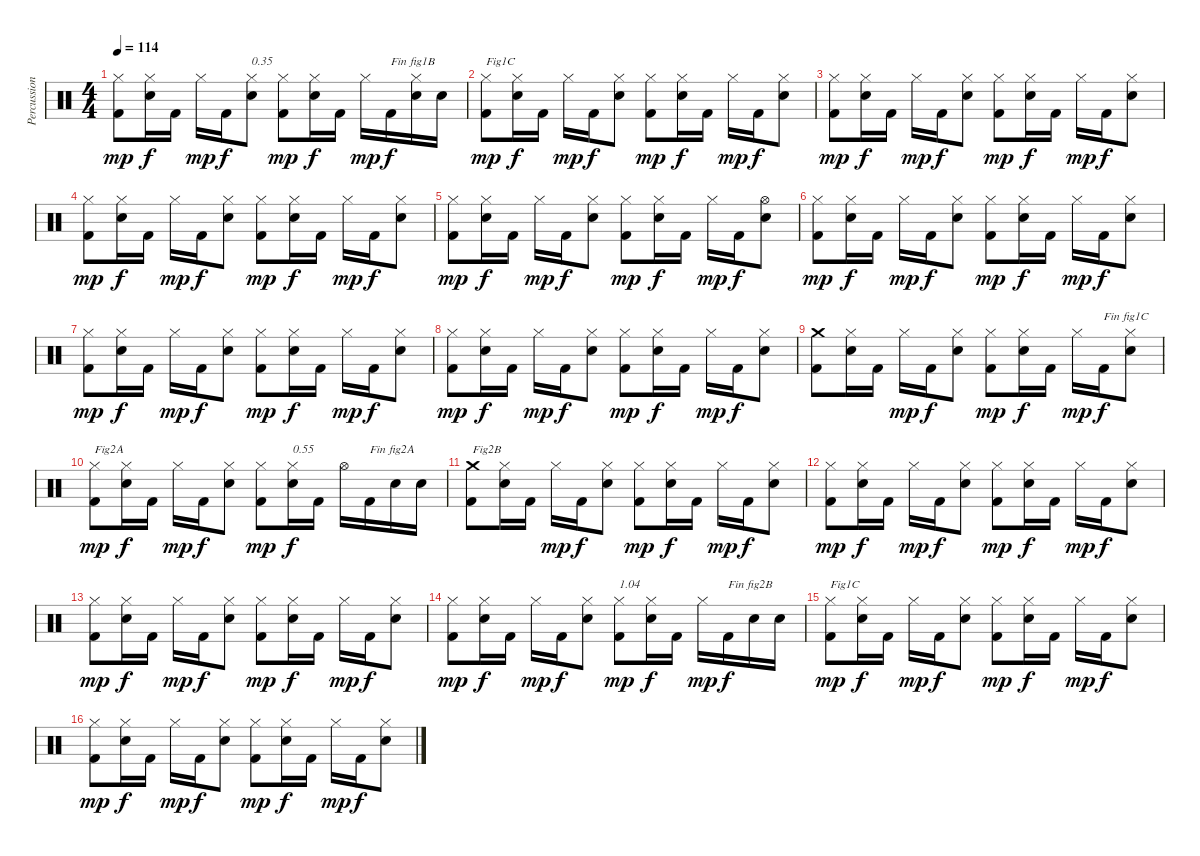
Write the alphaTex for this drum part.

\track ("Percussions" "Percussion") {instrument percussion}
\staff {score}
\articulation defaults
\ts (4 4)
\tempo 114
\clef neutral
\ks c
("Kick (hit) 2" "Hi-Hat (closed)").8{dy mp} ("Electric Snare (hit)" "Hi-Hat (closed)").16{dy f} "Kick (hit) 2".16 "Hi-Hat (closed)".16{dy mp} "Kick (hit) 2".16{dy f} ("Electric Snare (hit)" "Hi-Hat (closed)").8{txt "0.35"} ("Kick (hit) 2" "Hi-Hat (closed)").8{dy mp} ("Electric Snare (hit)" "Hi-Hat (closed)").16{dy f} "Kick (hit) 2".16 "Hi-Hat (closed)".16{dy mp} "Kick (hit) 2".16{txt "Fin fig1B" dy f} ("Electric Snare (hit)" "Hi-Hat (closed)").16 "Electric Snare (hit)".16 |
("Kick (hit) 2" "Hi-Hat (closed)").8{txt "Fig1C" dy mp} ("Electric Snare (hit)" "Hi-Hat (closed)").16{dy f} "Kick (hit) 2".16 "Hi-Hat (closed)".16{dy mp} "Kick (hit) 2".16{dy f} ("Electric Snare (hit)" "Hi-Hat (closed)").8 ("Kick (hit) 2" "Hi-Hat (closed)").8{dy mp} ("Electric Snare (hit)" "Hi-Hat (closed)").16{dy f} "Kick (hit) 2".16 "Hi-Hat (closed)".16{dy mp} "Kick (hit) 2".16{dy f} ("Electric Snare (hit)" "Hi-Hat (closed)").8 |
("Kick (hit) 2" "Hi-Hat (closed)").8{dy mp} ("Electric Snare (hit)" "Hi-Hat (closed)").16{dy f} "Kick (hit) 2".16 "Hi-Hat (closed)".16{dy mp} "Kick (hit) 2".16{dy f} ("Electric Snare (hit)" "Hi-Hat (closed)").8 ("Kick (hit) 2" "Hi-Hat (closed)").8{dy mp} ("Electric Snare (hit)" "Hi-Hat (closed)").16{dy f} "Kick (hit) 2".16 "Hi-Hat (closed)".16{dy mp} "Kick (hit) 2".16{dy f} ("Electric Snare (hit)" "Hi-Hat (closed)").8 |
("Kick (hit) 2" "Hi-Hat (closed)").8{dy mp} ("Electric Snare (hit)" "Hi-Hat (closed)").16{dy f} "Kick (hit) 2".16 "Hi-Hat (closed)".16{dy mp} "Kick (hit) 2".16{dy f} ("Electric Snare (hit)" "Hi-Hat (closed)").8 ("Kick (hit) 2" "Hi-Hat (closed)").8{dy mp} ("Electric Snare (hit)" "Hi-Hat (closed)").16{dy f} "Kick (hit) 2".16 "Hi-Hat (closed)".16{dy mp} "Kick (hit) 2".16{dy f} ("Electric Snare (hit)" "Hi-Hat (closed)").8 |
("Kick (hit) 2" "Hi-Hat (closed)").8{dy mp} ("Electric Snare (hit)" "Hi-Hat (closed)").16{dy f} "Kick (hit) 2".16 "Hi-Hat (closed)".16{dy mp} "Kick (hit) 2".16{dy f} ("Electric Snare (hit)" "Hi-Hat (closed)").8 ("Kick (hit) 2" "Hi-Hat (closed)").8{dy mp} ("Electric Snare (hit)" "Hi-Hat (closed)").16{dy f} "Kick (hit) 2".16 "Hi-Hat (closed)".16{dy mp} "Kick (hit) 2".16{dy f} ("Electric Snare (hit)" "Hi-Hat (open)").8 |
("Kick (hit) 2" "Hi-Hat (closed)").8{dy mp} ("Electric Snare (hit)" "Hi-Hat (closed)").16{dy f} "Kick (hit) 2".16 "Hi-Hat (closed)".16{dy mp} "Kick (hit) 2".16{dy f} ("Electric Snare (hit)" "Hi-Hat (closed)").8 ("Kick (hit) 2" "Hi-Hat (closed)").8{dy mp} ("Electric Snare (hit)" "Hi-Hat (closed)").16{dy f} "Kick (hit) 2".16 "Hi-Hat (closed)".16{dy mp} "Kick (hit) 2".16{dy f} ("Electric Snare (hit)" "Hi-Hat (closed)").8 |
("Kick (hit) 2" "Hi-Hat (closed)").8{dy mp} ("Electric Snare (hit)" "Hi-Hat (closed)").16{dy f} "Kick (hit) 2".16 "Hi-Hat (closed)".16{dy mp} "Kick (hit) 2".16{dy f} ("Electric Snare (hit)" "Hi-Hat (closed)").8 ("Kick (hit) 2" "Hi-Hat (closed)").8{dy mp} ("Electric Snare (hit)" "Hi-Hat (closed)").16{dy f} "Kick (hit) 2".16 "Hi-Hat (closed)".16{dy mp} "Kick (hit) 2".16{dy f} ("Electric Snare (hit)" "Hi-Hat (closed)").8 |
("Kick (hit) 2" "Hi-Hat (closed)").8{dy mp} ("Electric Snare (hit)" "Hi-Hat (closed)").16{dy f} "Kick (hit) 2".16 "Hi-Hat (closed)".16{dy mp} "Kick (hit) 2".16{dy f} ("Electric Snare (hit)" "Hi-Hat (closed)").8 ("Kick (hit) 2" "Hi-Hat (closed)").8{dy mp} ("Electric Snare (hit)" "Hi-Hat (closed)").16{dy f} "Kick (hit) 2".16 "Hi-Hat (closed)".16{dy mp} "Kick (hit) 2".16{dy f} ("Electric Snare (hit)" "Hi-Hat (closed)").8 |
("Kick (hit) 2" "Crash medium (hit)").8 ("Electric Snare (hit)" "Hi-Hat (closed)").16 "Kick (hit) 2".16 "Hi-Hat (closed)".16{dy mp} "Kick (hit) 2".16{dy f} ("Electric Snare (hit)" "Hi-Hat (closed)").8 ("Kick (hit) 2" "Hi-Hat (closed)").8{dy mp} ("Electric Snare (hit)" "Hi-Hat (closed)").16{dy f} "Kick (hit) 2".16 "Hi-Hat (closed)".16{dy mp} "Kick (hit) 2".16{txt "Fin fig1C" dy f} ("Electric Snare (hit)" "Hi-Hat (closed)").8 |
("Kick (hit) 2" "Hi-Hat (closed)").8{txt "Fig2A" dy mp} ("Electric Snare (hit)" "Hi-Hat (closed)").16{dy f} "Kick (hit) 2".16 "Hi-Hat (closed)".16{dy mp} "Kick (hit) 2".16{dy f} ("Electric Snare (hit)" "Hi-Hat (closed)").8 ("Kick (hit) 2" "Hi-Hat (closed)").8{dy mp} ("Electric Snare (hit)" "Hi-Hat (closed)").16{txt "0.55" dy f} "Kick (hit) 2".16 "Hi-Hat (open)".16 "Kick (hit) 2".16{txt "Fin fig2A"} "Electric Snare (hit)".16 "Electric Snare (hit)".16 |
("Kick (hit) 2" "Crash medium (hit)").8{txt "Fig2B"} ("Electric Snare (hit)" "Hi-Hat (closed)").16 "Kick (hit) 2".16 "Hi-Hat (closed)".16{dy mp} "Kick (hit) 2".16{dy f} ("Electric Snare (hit)" "Hi-Hat (closed)").8 ("Kick (hit) 2" "Hi-Hat (closed)").8{dy mp} ("Electric Snare (hit)" "Hi-Hat (closed)").16{dy f} "Kick (hit) 2".16 "Hi-Hat (closed)".16{dy mp} "Kick (hit) 2".16{dy f} ("Electric Snare (hit)" "Hi-Hat (closed)").8 |
("Kick (hit) 2" "Hi-Hat (closed)").8{dy mp} ("Electric Snare (hit)" "Hi-Hat (closed)").16{dy f} "Kick (hit) 2".16 "Hi-Hat (closed)".16{dy mp} "Kick (hit) 2".16{dy f} ("Electric Snare (hit)" "Hi-Hat (closed)").8 ("Kick (hit) 2" "Hi-Hat (closed)").8{dy mp} ("Electric Snare (hit)" "Hi-Hat (closed)").16{dy f} "Kick (hit) 2".16 "Hi-Hat (closed)".16{dy mp} "Kick (hit) 2".16{dy f} ("Electric Snare (hit)" "Hi-Hat (closed)").8 |
("Kick (hit) 2" "Hi-Hat (closed)").8{dy mp} ("Electric Snare (hit)" "Hi-Hat (closed)").16{dy f} "Kick (hit) 2".16 "Hi-Hat (closed)".16{dy mp} "Kick (hit) 2".16{dy f} ("Electric Snare (hit)" "Hi-Hat (closed)").8 ("Kick (hit) 2" "Hi-Hat (closed)").8{dy mp} ("Electric Snare (hit)" "Hi-Hat (closed)").16{dy f} "Kick (hit) 2".16 "Hi-Hat (closed)".16{dy mp} "Kick (hit) 2".16{dy f} ("Electric Snare (hit)" "Hi-Hat (closed)").8 |
("Kick (hit) 2" "Hi-Hat (closed)").8{dy mp} ("Electric Snare (hit)" "Hi-Hat (closed)").16{dy f} "Kick (hit) 2".16 "Hi-Hat (closed)".16{dy mp} "Kick (hit) 2".16{dy f} ("Electric Snare (hit)" "Hi-Hat (closed)").8 ("Kick (hit) 2" "Hi-Hat (closed)").8{txt "1.04" dy mp} ("Electric Snare (hit)" "Hi-Hat (closed)").16{dy f} "Kick (hit) 2".16 "Hi-Hat (closed)".16{dy mp} "Kick (hit) 2".16{txt "Fin fig2B" dy f} "Electric Snare (hit)".16 "Electric Snare (hit)".16 |
("Kick (hit) 2" "Hi-Hat (closed)").8{txt "Fig1C" dy mp} ("Electric Snare (hit)" "Hi-Hat (closed)").16{dy f} "Kick (hit) 2".16 "Hi-Hat (closed)".16{dy mp} "Kick (hit) 2".16{dy f} ("Electric Snare (hit)" "Hi-Hat (closed)").8 ("Kick (hit) 2" "Hi-Hat (closed)").8{dy mp} ("Electric Snare (hit)" "Hi-Hat (closed)").16{dy f} "Kick (hit) 2".16 "Hi-Hat (closed)".16{dy mp} "Kick (hit) 2".16{dy f} ("Electric Snare (hit)" "Hi-Hat (closed)").8 |
("Kick (hit) 2" "Hi-Hat (closed)").8{dy mp} ("Electric Snare (hit)" "Hi-Hat (closed)").16{dy f} "Kick (hit) 2".16 "Hi-Hat (closed)".16{dy mp} "Kick (hit) 2".16{dy f} ("Electric Snare (hit)" "Hi-Hat (closed)").8 ("Kick (hit) 2" "Hi-Hat (closed)").8{dy mp} ("Electric Snare (hit)" "Hi-Hat (closed)").16{dy f} "Kick (hit) 2".16 "Hi-Hat (closed)".16{dy mp} "Kick (hit) 2".16{dy f} ("Electric Snare (hit)" "Hi-Hat (closed)").8
